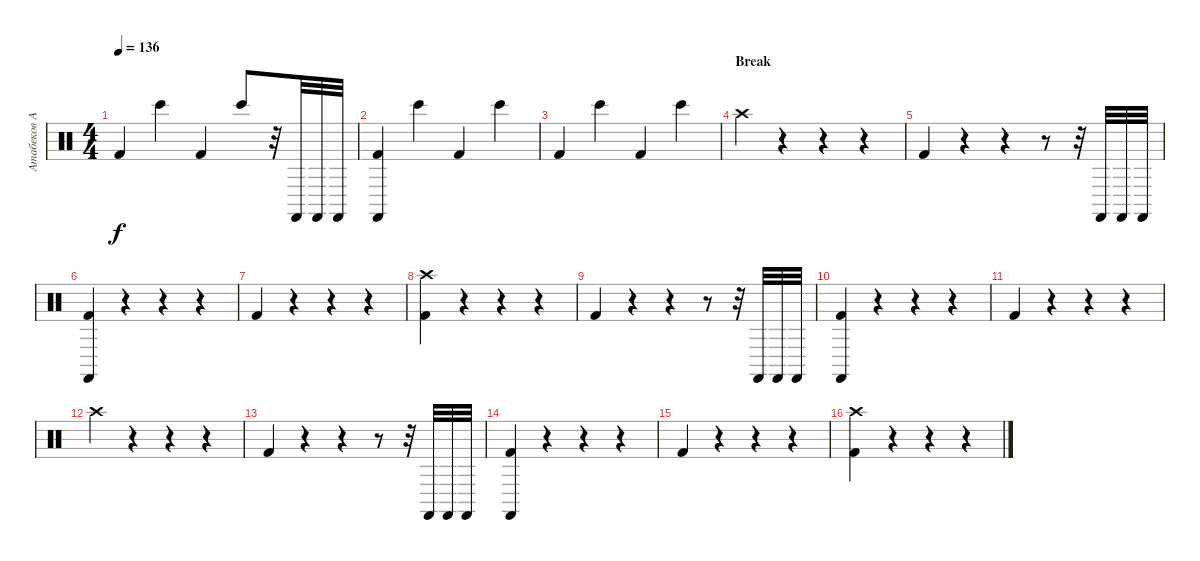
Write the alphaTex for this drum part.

\track ("Атабеков Андрей - Барабаны" "Атабеков А") {instrument percussion}
\staff {score}
\articulation defaults
\ts (4 4)
\tempo 136
\clef neutral
\ks c "Kick (hit) 2".4{dy f} "Bongo High (hit)".4 "Kick (hit) 2".4 "Bongo High (hit)".8
r.32 "Castanets (hit)".32 "Castanets (hit)".32 "Castanets (hit)".32 |
("Kick (hit) 2" "Castanets (hit)").4 "Bongo High (hit)".4 "Kick (hit) 2".4 "Bongo High (hit)".4 |
"Kick (hit) 2".4 "Bongo High (hit)".4 "Kick (hit) 2".4 "Bongo High (hit)".4 |
\section ("" "Break")
"Crash high (hit)".4 r.4 r.4 r.4 |
"Kick (hit) 2".4 r.4 r.4 r.8 r.32 "Castanets (hit)".32 "Castanets (hit)".32 "Castanets (hit)".32 |
("Kick (hit) 2" "Castanets (hit)").4 r.4 r.4 r.4 |
"Kick (hit) 2".4 r.4 r.4 r.4 |
("Kick (hit) 2" "Crash high (hit)").4 r.4 r.4 r.4 |
"Kick (hit) 2".4 r.4 r.4 r.8 r.32 "Castanets (hit)".32 "Castanets (hit)".32 "Castanets (hit)".32 |
("Kick (hit) 2" "Castanets (hit)").4 r.4 r.4 r.4 |
"Kick (hit) 2".4 r.4 r.4 r.4 |
"Crash high (hit)".4 r.4 r.4 r.4 |
"Kick (hit) 2".4 r.4 r.4 r.8 r.32 "Castanets (hit)".32 "Castanets (hit)".32 "Castanets (hit)".32 |
("Kick (hit) 2" "Castanets (hit)").4 r.4 r.4 r.4 |
"Kick (hit) 2".4 r.4 r.4 r.4 |
("Kick (hit) 2" "Crash high (hit)").4 r.4 r.4 r.4
